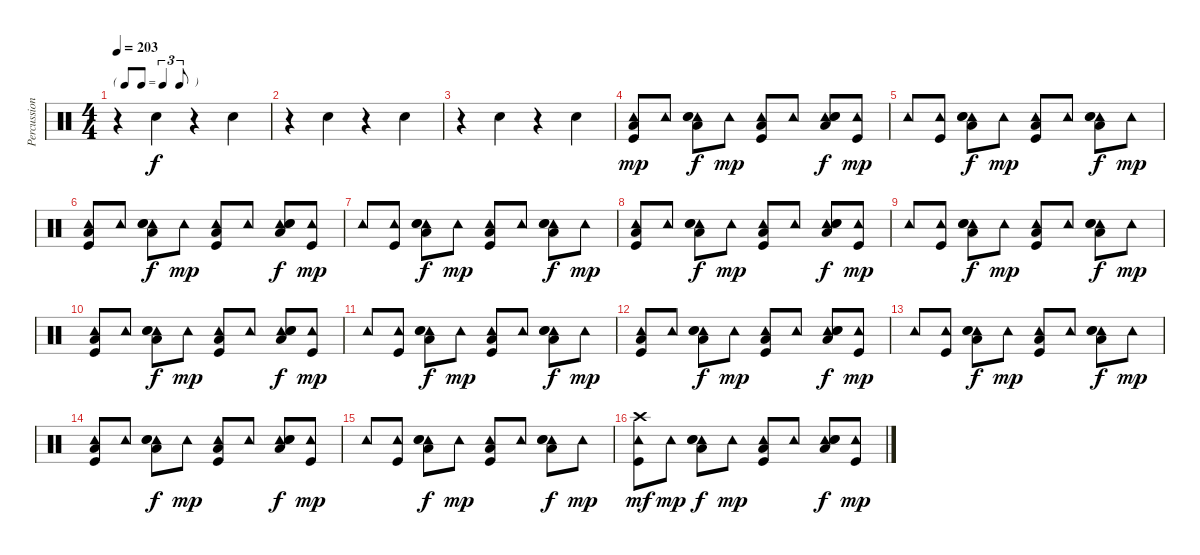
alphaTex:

\track ("Percussion" "Percussion") {instrument percussion}
\staff {score}
\articulation defaults
\ts (4 4)
\tf triplet8th
\tempo 203
\clef neutral
\ks c
r.4{dy f} "Hand Clap (hit)".4 r.4 "Hand Clap (hit)".4 |
r.4 "Hand Clap (hit)".4 r.4 "Hand Clap (hit)".4 |
r.4 "Hand Clap (hit)".4 r.4 "Hand Clap (hit)".4 |
("Tambourine (hit)" "Low Tom (hit)" "Kick (hit)").8{dy mp} "Tambourine (hit)".8 ("Tambourine (hit)" "Hand Clap (hit)" "Snare (hit) 2" "Low Tom (hit)").8{dy f} "Tambourine (hit)".8{dy mp} ("Tambourine (hit)" "Low Tom (hit)" "Kick (hit)").8 "Tambourine (hit)".8 ("Tambourine (hit)" "Hand Clap (hit)" "Snare (hit) 2" "Low Tom (hit)").8{dy f} ("Tambourine (hit)" "Kick (hit)").8{dy mp} |
"Tambourine (hit)".8 ("Tambourine (hit)" "Kick (hit)").8 ("Tambourine (hit)" "Hand Clap (hit)" "Snare (hit) 2" "Low Tom (hit)").8{dy f} "Tambourine (hit)".8{dy mp} ("Tambourine (hit)" "Low Tom (hit)" "Kick (hit)").8 "Tambourine (hit)".8 ("Tambourine (hit)" "Hand Clap (hit)" "Snare (hit) 2" "Low Tom (hit)").8{dy f} "Tambourine (hit)".8{dy mp} |
("Tambourine (hit)" "Low Tom (hit)" "Kick (hit)").8 "Tambourine (hit)".8 ("Tambourine (hit)" "Hand Clap (hit)" "Snare (hit) 2" "Low Tom (hit)").8{dy f} "Tambourine (hit)".8{dy mp} ("Tambourine (hit)" "Low Tom (hit)" "Kick (hit)").8 "Tambourine (hit)".8 ("Tambourine (hit)" "Hand Clap (hit)" "Snare (hit) 2" "Low Tom (hit)").8{dy f} ("Tambourine (hit)" "Kick (hit)").8{dy mp} |
"Tambourine (hit)".8 ("Tambourine (hit)" "Kick (hit)").8 ("Tambourine (hit)" "Hand Clap (hit)" "Snare (hit) 2" "Low Tom (hit)").8{dy f} "Tambourine (hit)".8{dy mp} ("Tambourine (hit)" "Low Tom (hit)" "Kick (hit)").8 "Tambourine (hit)".8 ("Tambourine (hit)" "Hand Clap (hit)" "Snare (hit) 2" "Low Tom (hit)").8{dy f} "Tambourine (hit)".8{dy mp} |
("Tambourine (hit)" "Low Tom (hit)" "Kick (hit)").8 "Tambourine (hit)".8 ("Tambourine (hit)" "Hand Clap (hit)" "Snare (hit) 2" "Low Tom (hit)").8{dy f} "Tambourine (hit)".8{dy mp} ("Tambourine (hit)" "Low Tom (hit)" "Kick (hit)").8 "Tambourine (hit)".8 ("Tambourine (hit)" "Hand Clap (hit)" "Snare (hit) 2" "Low Tom (hit)").8{dy f} ("Tambourine (hit)" "Kick (hit)").8{dy mp} |
"Tambourine (hit)".8 ("Tambourine (hit)" "Kick (hit)").8 ("Tambourine (hit)" "Hand Clap (hit)" "Snare (hit) 2" "Low Tom (hit)").8{dy f} "Tambourine (hit)".8{dy mp} ("Tambourine (hit)" "Low Tom (hit)" "Kick (hit)").8 "Tambourine (hit)".8 ("Tambourine (hit)" "Hand Clap (hit)" "Snare (hit) 2" "Low Tom (hit)").8{dy f} "Tambourine (hit)".8{dy mp} |
("Tambourine (hit)" "Low Tom (hit)" "Kick (hit)").8 "Tambourine (hit)".8 ("Tambourine (hit)" "Hand Clap (hit)" "Snare (hit) 2" "Low Tom (hit)").8{dy f} "Tambourine (hit)".8{dy mp} ("Tambourine (hit)" "Low Tom (hit)" "Kick (hit)").8 "Tambourine (hit)".8 ("Tambourine (hit)" "Hand Clap (hit)" "Snare (hit) 2" "Low Tom (hit)").8{dy f} ("Tambourine (hit)" "Kick (hit)").8{dy mp} |
"Tambourine (hit)".8 ("Tambourine (hit)" "Kick (hit)").8 ("Tambourine (hit)" "Hand Clap (hit)" "Snare (hit) 2" "Low Tom (hit)").8{dy f} "Tambourine (hit)".8{dy mp} ("Tambourine (hit)" "Low Tom (hit)" "Kick (hit)").8 "Tambourine (hit)".8 ("Tambourine (hit)" "Hand Clap (hit)" "Snare (hit) 2" "Low Tom (hit)").8{dy f} "Tambourine (hit)".8{dy mp} |
("Tambourine (hit)" "Low Tom (hit)" "Kick (hit)").8 "Tambourine (hit)".8 ("Tambourine (hit)" "Hand Clap (hit)" "Snare (hit) 2" "Low Tom (hit)").8{dy f} "Tambourine (hit)".8{dy mp} ("Tambourine (hit)" "Low Tom (hit)" "Kick (hit)").8 "Tambourine (hit)".8 ("Tambourine (hit)" "Hand Clap (hit)" "Snare (hit) 2" "Low Tom (hit)").8{dy f} ("Tambourine (hit)" "Kick (hit)").8{dy mp} |
"Tambourine (hit)".8 ("Tambourine (hit)" "Kick (hit)").8 ("Tambourine (hit)" "Hand Clap (hit)" "Snare (hit) 2" "Low Tom (hit)").8{dy f} "Tambourine (hit)".8{dy mp} ("Tambourine (hit)" "Low Tom (hit)" "Kick (hit)").8 "Tambourine (hit)".8 ("Tambourine (hit)" "Hand Clap (hit)" "Snare (hit) 2" "Low Tom (hit)").8{dy f} "Tambourine (hit)".8{dy mp} |
("Tambourine (hit)" "Low Tom (hit)" "Kick (hit)").8 "Tambourine (hit)".8 ("Tambourine (hit)" "Hand Clap (hit)" "Snare (hit) 2" "Low Tom (hit)").8{dy f} "Tambourine (hit)".8{dy mp} ("Tambourine (hit)" "Low Tom (hit)" "Kick (hit)").8 "Tambourine (hit)".8 ("Tambourine (hit)" "Hand Clap (hit)" "Snare (hit) 2" "Low Tom (hit)").8{dy f} ("Tambourine (hit)" "Kick (hit)").8{dy mp} |
"Tambourine (hit)".8 ("Tambourine (hit)" "Kick (hit)").8 ("Tambourine (hit)" "Hand Clap (hit)" "Snare (hit) 2" "Low Tom (hit)").8{dy f} "Tambourine (hit)".8{dy mp} ("Tambourine (hit)" "Low Tom (hit)" "Kick (hit)").8 "Tambourine (hit)".8 ("Tambourine (hit)" "Hand Clap (hit)" "Snare (hit) 2" "Low Tom (hit)").8{dy f} "Tambourine (hit)".8{dy mp} |
("Tambourine (hit)" "Crash high (hit)" "Kick (hit)").8{dy mf} "Tambourine (hit)".8{dy mp} ("Tambourine (hit)" "Hand Clap (hit)" "Snare (hit) 2" "Low Tom (hit)").8{dy f} "Tambourine (hit)".8{dy mp} ("Tambourine (hit)" "Low Tom (hit)" "Kick (hit)").8 "Tambourine (hit)".8 ("Tambourine (hit)" "Hand Clap (hit)" "Snare (hit) 2" "Low Tom (hit)").8{dy f} ("Tambourine (hit)" "Kick (hit)").8{dy mp}
